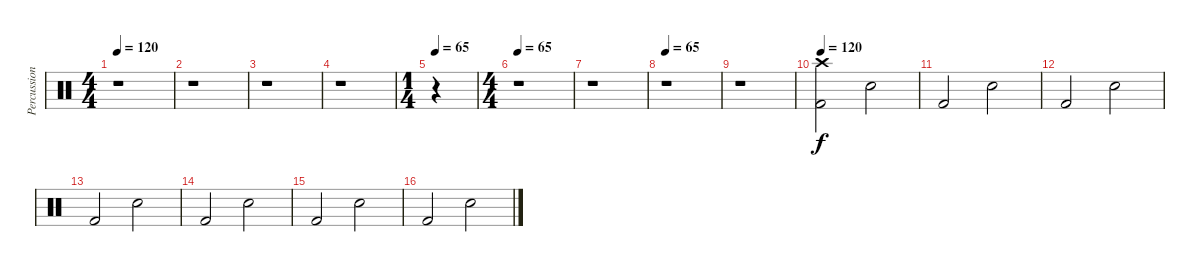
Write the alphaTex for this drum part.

\track ("Percussions" "Percussion") {instrument percussion}
\staff {score}
\articulation defaults
\ts (4 4)
\tempo 120
\clef neutral
\ks c
r.1{dy f} |
r.1 |
r.1 |
r.1 |
\ts (1 4)
\tempo 65
r.4 |
\ts (4 4)
\tempo 65
r.1 |
r.1 |
\tempo 65
r.1 |
r.1 |
\tempo 120
("Crash high (hit)" "Kick (hit) 2").2 "Snare (hit) 2".2 |
"Kick (hit) 2".2 "Snare (hit) 2".2 |
"Kick (hit) 2".2 "Snare (hit) 2".2 |
"Kick (hit) 2".2 "Snare (hit) 2".2 |
"Kick (hit) 2".2 "Snare (hit) 2".2 |
"Kick (hit) 2".2 "Snare (hit) 2".2 |
"Kick (hit) 2".2 "Snare (hit) 2".2
